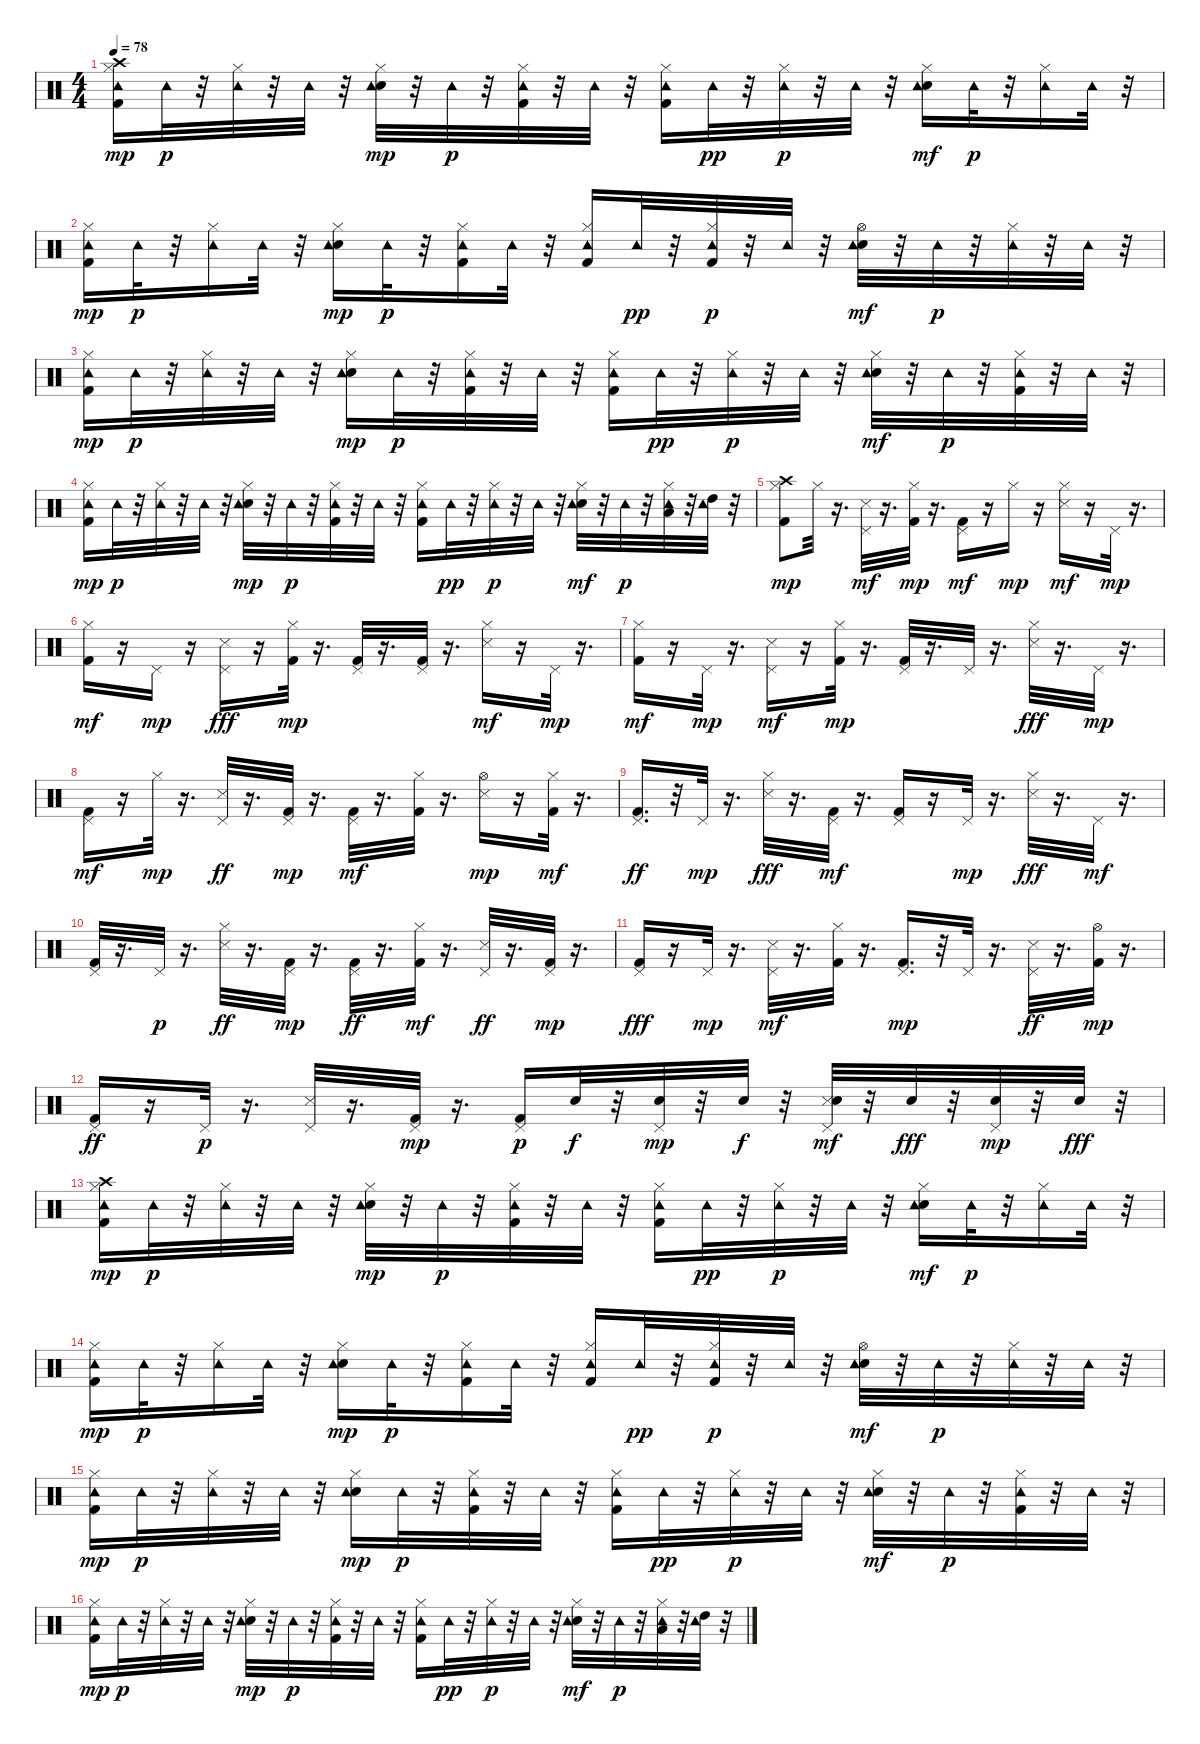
\track "" {instrument percussion}
\staff {score}
\articulation defaults
\ts (4 4)
\tempo 78
\clef neutral
\ks c
("Kick (hit) 2" "Hi-Hat (closed)" "Crash high (hit)" "Tambourine (hit)").16{dy mp} "Tambourine (hit)".32{dy p} r.32 ("Hi-Hat (closed)" "Tambourine (hit)").32 r.32 "Tambourine (hit)".32 r.32 ("Electric Snare (hit)" "Hi-Hat (closed)" "Tambourine (hit)").32{dy mp} r.32 "Tambourine (hit)".32{dy p} r.32 ("Kick (hit) 2" "Hi-Hat (closed)" "Tambourine (hit)").32 r.32 "Tambourine (hit)".32 r.32 ("Kick (hit) 2" "Hi-Hat (closed)" "Tambourine (hit)").16 "Tambourine (hit)".32{dy pp} r.32 ("Hi-Hat (closed)" "Tambourine (hit)").32{dy p} r.32 "Tambourine (hit)".32 r.32 ("Electric Snare (hit)" "Hi-Hat (closed)" "Tambourine (hit)").16{dy mf} "Tambourine (hit)".32{dy p} r.32 ("Hi-Hat (closed)" "Tambourine (hit)").16 "Tambourine (hit)".32 r.32 |
("Kick (hit) 2" "Hi-Hat (closed)" "Tambourine (hit)").16{dy mp} "Tambourine (hit)".32{dy p} r.32 ("Hi-Hat (closed)" "Tambourine (hit)").16 "Tambourine (hit)".32 r.32 ("Electric Snare (hit)" "Hi-Hat (closed)" "Tambourine (hit)").16{dy mp} "Tambourine (hit)".32{dy p} r.32 ("Kick (hit) 2" "Hi-Hat (closed)" "Tambourine (hit)").16 "Tambourine (hit)".32 r.32 ("Kick (hit) 2" "Hi-Hat (closed)" "Tambourine (hit)").16 "Tambourine (hit)".32{dy pp} r.32 ("Kick (hit) 2" "Hi-Hat (closed)" "Tambourine (hit)").32{dy p} r.32 "Tambourine (hit)".32 r.32 ("Electric Snare (hit)" "Hi-Hat (open)" "Tambourine (hit)").32{dy mf} r.32 "Tambourine (hit)".32{dy p} r.32 ("Hi-Hat (closed)" "Tambourine (hit)").32 r.32 "Tambourine (hit)".32 r.32 |
("Kick (hit) 2" "Hi-Hat (closed)" "Tambourine (hit)").16{dy mp} "Tambourine (hit)".32{dy p} r.32 ("Hi-Hat (closed)" "Tambourine (hit)").32 r.32 "Tambourine (hit)".32 r.32 ("Electric Snare (hit)" "Hi-Hat (closed)" "Tambourine (hit)").16{dy mp} "Tambourine (hit)".32{dy p} r.32 ("Kick (hit) 2" "Hi-Hat (closed)" "Tambourine (hit)").32 r.32 "Tambourine (hit)".32 r.32 ("Kick (hit) 2" "Hi-Hat (closed)" "Tambourine (hit)").16 "Tambourine (hit)".32{dy pp} r.32 ("Hi-Hat (closed)" "Tambourine (hit)").32{dy p} r.32 "Tambourine (hit)".32 r.32 ("Electric Snare (hit)" "Hi-Hat (closed)" "Tambourine (hit)").32{dy mf} r.32 "Tambourine (hit)".32{dy p} r.32 ("Kick (hit) 2" "Hi-Hat (closed)" "Tambourine (hit)").32 r.32 "Tambourine (hit)".32 r.32 |
("Kick (hit) 2" "Hi-Hat (closed)" "Tambourine (hit)").16{dy mp} "Tambourine (hit)".32{dy p} r.32 ("Hi-Hat (closed)" "Tambourine (hit)").32 r.32 "Tambourine (hit)".32 r.32 ("Electric Snare (hit)" "Hi-Hat (closed)" "Tambourine (hit)").32{dy mp} r.32 "Tambourine (hit)".32{dy p} r.32 ("Kick (hit) 2" "Hi-Hat (closed)" "Tambourine (hit)").32 r.32 "Tambourine (hit)".32 r.32 ("Kick (hit) 2" "Hi-Hat (closed)" "Tambourine (hit)").16 "Tambourine (hit)".32{dy pp} r.32 ("Hi-Hat (closed)" "Tambourine (hit)").32{dy p} r.32 "Tambourine (hit)".32 r.32 ("Electric Snare (hit)" "Hi-Hat (closed)" "Tambourine (hit)").32{dy mf} r.32 "Tambourine (hit)".32{dy p} r.32 ("Hi-Hat (closed)" "Low Tom (hit)" "Tambourine (hit)").32 r.32 ("High Tom (hit)" "Tambourine (hit)").32 r.32 |
("Kick (hit) 2" "Hi-Hat (closed)" "Crash high (hit)").8{dy mp} "Hi-Hat (closed)".32 r.16{d} ("Snare (side stick) 3" "Pedal Hi-Hat (hit)").32{dy mf} r.16{d} ("Kick (hit) 2" "Hi-Hat (closed)").32{dy mp} r.16{d} ("Kick (hit) 2" "Pedal Hi-Hat (hit)").16{dy mf} r.16 "Hi-Hat (closed)".16{dy mp} r.16 ("Snare (side stick) 3" "Hi-Hat (closed)").16{dy mf} r.16 "Pedal Hi-Hat (hit)".32{dy mp} r.16{d} |
("Kick (hit) 2" "Hi-Hat (closed)").16{dy mf} r.16 "Pedal Hi-Hat (hit)".16{dy mp} r.16 ("Snare (side stick) 3" "Pedal Hi-Hat (hit)").16{dy fff} r.16 ("Kick (hit) 2" "Hi-Hat (closed)").32{dy mp} r.16{d} ("Kick (hit) 2" "Pedal Hi-Hat (hit)").32 r.16{d} ("Kick (hit) 2" "Pedal Hi-Hat (hit)").32 r.16{d} ("Snare (side stick) 3" "Hi-Hat (closed)").16{dy mf} r.16 "Pedal Hi-Hat (hit)".32{dy mp} r.16{d} |
("Kick (hit) 2" "Hi-Hat (closed)").16{dy mf} r.16 "Pedal Hi-Hat (hit)".32{dy mp} r.16{d} ("Snare (side stick) 3" "Pedal Hi-Hat (hit)").16{dy mf} r.16 ("Kick (hit) 2" "Hi-Hat (closed)").32{dy mp} r.16{d} ("Kick (hit) 2" "Pedal Hi-Hat (hit)").32 r.16{d} "Pedal Hi-Hat (hit)".32 r.16{d} ("Snare (side stick) 3" "Hi-Hat (closed)").32{dy fff} r.16{d} "Pedal Hi-Hat (hit)".32{dy mp} r.16{d} |
("Kick (hit) 2" "Pedal Hi-Hat (hit)").16{dy mf} r.16 "Hi-Hat (closed)".32{dy mp} r.16{d} ("Snare (side stick) 3" "Pedal Hi-Hat (hit)").32{dy ff} r.16{d} ("Kick (hit) 2" "Pedal Hi-Hat (hit)").32{dy mp} r.16{d} ("Kick (hit) 2" "Pedal Hi-Hat (hit)").32{dy mf} r.16{d} ("Kick (hit) 2" "Hi-Hat (closed)").32 r.16{d} ("Snare (side stick) 3" "Hi-Hat (open)").16{dy mp} r.16 ("Kick (hit) 2" "Hi-Hat (closed)").32{dy mf} r.16{d} |
("Kick (hit) 2" "Pedal Hi-Hat (hit)").16{d dy ff} r.32 "Pedal Hi-Hat (hit)".32{dy mp} r.16{d} ("Snare (side stick) 3" "Hi-Hat (closed)").32{dy fff} r.16{d} ("Kick (hit) 2" "Pedal Hi-Hat (hit)").32{dy mf} r.16{d} ("Kick (hit) 2" "Pedal Hi-Hat (hit)").16 r.16 "Pedal Hi-Hat (hit)".32{dy mp} r.16{d} ("Snare (side stick) 3" "Hi-Hat (closed)").32{dy fff} r.16{d} "Pedal Hi-Hat (hit)".32{dy mf} r.16{d} |
("Kick (hit) 2" "Pedal Hi-Hat (hit)").32 r.16{d} "Pedal Hi-Hat (hit)".32{dy p} r.16{d} ("Snare (side stick) 3" "Hi-Hat (closed)").32{dy ff} r.16{d} ("Kick (hit) 2" "Pedal Hi-Hat (hit)").32{dy mp} r.16{d} ("Kick (hit) 2" "Pedal Hi-Hat (hit)").32{dy ff} r.16{d} ("Kick (hit) 2" "Hi-Hat (closed)").32{dy mf} r.16{d} ("Snare (side stick) 3" "Pedal Hi-Hat (hit)").32{dy ff} r.16{d} ("Kick (hit) 2" "Pedal Hi-Hat (hit)").32{dy mp} r.16{d} |
("Kick (hit) 2" "Pedal Hi-Hat (hit)").16{dy fff} r.16 "Pedal Hi-Hat (hit)".32{dy mp} r.16{d} ("Snare (side stick) 3" "Pedal Hi-Hat (hit)").32{dy mf} r.16{d} ("Kick (hit) 2" "Hi-Hat (closed)").32 r.16{d} ("Kick (hit) 2" "Pedal Hi-Hat (hit)").16{d dy mp} r.32 "Pedal Hi-Hat (hit)".32 r.16{d} ("Snare (side stick) 3" "Pedal Hi-Hat (hit)").32{dy ff} r.16{d} ("Kick (hit) 2" "Hi-Hat (open)").32{dy mp} r.16{d} |
("Kick (hit) 2" "Pedal Hi-Hat (hit)").16{dy ff} r.16 "Pedal Hi-Hat (hit)".32{dy p} r.16{d} ("Snare (side stick) 3" "Pedal Hi-Hat (hit)").32 r.16{d} ("Kick (hit) 2" "Pedal Hi-Hat (hit)").32{dy mp} r.16{d} ("Kick (hit) 2" "Pedal Hi-Hat (hit)").16{dy p} "Electric Snare (hit)".32{dy f} r.32 ("Electric Snare (hit)" "Pedal Hi-Hat (hit)").32{dy mp} r.32 "Electric Snare (hit)".32{dy f} r.32 ("Snare (side stick) 3" "Electric Snare (hit)" "Pedal Hi-Hat (hit)").32{dy mf} r.32 "Electric Snare (hit)".32{dy fff} r.32 ("Electric Snare (hit)" "Pedal Hi-Hat (hit)").32{dy mp} r.32 "Electric Snare (hit)".32{dy fff} r.32 |
("Kick (hit) 2" "Hi-Hat (closed)" "Crash high (hit)" "Tambourine (hit)").16{dy mp} "Tambourine (hit)".32{dy p} r.32 ("Hi-Hat (closed)" "Tambourine (hit)").32 r.32 "Tambourine (hit)".32 r.32 ("Electric Snare (hit)" "Hi-Hat (closed)" "Tambourine (hit)").32{dy mp} r.32 "Tambourine (hit)".32{dy p} r.32 ("Kick (hit) 2" "Hi-Hat (closed)" "Tambourine (hit)").32 r.32 "Tambourine (hit)".32 r.32 ("Kick (hit) 2" "Hi-Hat (closed)" "Tambourine (hit)").16 "Tambourine (hit)".32{dy pp} r.32 ("Hi-Hat (closed)" "Tambourine (hit)").32{dy p} r.32 "Tambourine (hit)".32 r.32 ("Electric Snare (hit)" "Hi-Hat (closed)" "Tambourine (hit)").16{dy mf} "Tambourine (hit)".32{dy p} r.32 ("Hi-Hat (closed)" "Tambourine (hit)").16 "Tambourine (hit)".32 r.32 |
("Kick (hit) 2" "Hi-Hat (closed)" "Tambourine (hit)").16{dy mp} "Tambourine (hit)".32{dy p} r.32 ("Hi-Hat (closed)" "Tambourine (hit)").16 "Tambourine (hit)".32 r.32 ("Electric Snare (hit)" "Hi-Hat (closed)" "Tambourine (hit)").16{dy mp} "Tambourine (hit)".32{dy p} r.32 ("Kick (hit) 2" "Hi-Hat (closed)" "Tambourine (hit)").16 "Tambourine (hit)".32 r.32 ("Kick (hit) 2" "Hi-Hat (closed)" "Tambourine (hit)").16 "Tambourine (hit)".32{dy pp} r.32 ("Kick (hit) 2" "Hi-Hat (closed)" "Tambourine (hit)").32{dy p} r.32 "Tambourine (hit)".32 r.32 ("Electric Snare (hit)" "Hi-Hat (open)" "Tambourine (hit)").32{dy mf} r.32 "Tambourine (hit)".32{dy p} r.32 ("Hi-Hat (closed)" "Tambourine (hit)").32 r.32 "Tambourine (hit)".32 r.32 |
("Kick (hit) 2" "Hi-Hat (closed)" "Tambourine (hit)").16{dy mp} "Tambourine (hit)".32{dy p} r.32 ("Hi-Hat (closed)" "Tambourine (hit)").32 r.32 "Tambourine (hit)".32 r.32 ("Electric Snare (hit)" "Hi-Hat (closed)" "Tambourine (hit)").16{dy mp} "Tambourine (hit)".32{dy p} r.32 ("Kick (hit) 2" "Hi-Hat (closed)" "Tambourine (hit)").32 r.32 "Tambourine (hit)".32 r.32 ("Kick (hit) 2" "Hi-Hat (closed)" "Tambourine (hit)").16 "Tambourine (hit)".32{dy pp} r.32 ("Hi-Hat (closed)" "Tambourine (hit)").32{dy p} r.32 "Tambourine (hit)".32 r.32 ("Electric Snare (hit)" "Hi-Hat (closed)" "Tambourine (hit)").32{dy mf} r.32 "Tambourine (hit)".32{dy p} r.32 ("Kick (hit) 2" "Hi-Hat (closed)" "Tambourine (hit)").32 r.32 "Tambourine (hit)".32 r.32 |
("Kick (hit) 2" "Hi-Hat (closed)" "Tambourine (hit)").16{dy mp} "Tambourine (hit)".32{dy p} r.32 ("Hi-Hat (closed)" "Tambourine (hit)").32 r.32 "Tambourine (hit)".32 r.32 ("Electric Snare (hit)" "Hi-Hat (closed)" "Tambourine (hit)").32{dy mp} r.32 "Tambourine (hit)".32{dy p} r.32 ("Kick (hit) 2" "Hi-Hat (closed)" "Tambourine (hit)").32 r.32 "Tambourine (hit)".32 r.32 ("Kick (hit) 2" "Hi-Hat (closed)" "Tambourine (hit)").16 "Tambourine (hit)".32{dy pp} r.32 ("Hi-Hat (closed)" "Tambourine (hit)").32{dy p} r.32 "Tambourine (hit)".32 r.32 ("Electric Snare (hit)" "Hi-Hat (closed)" "Tambourine (hit)").32{dy mf} r.32 "Tambourine (hit)".32{dy p} r.32 ("Hi-Hat (closed)" "Low Tom (hit)" "Tambourine (hit)").32 r.32 ("High Tom (hit)" "Tambourine (hit)").32 r.32
